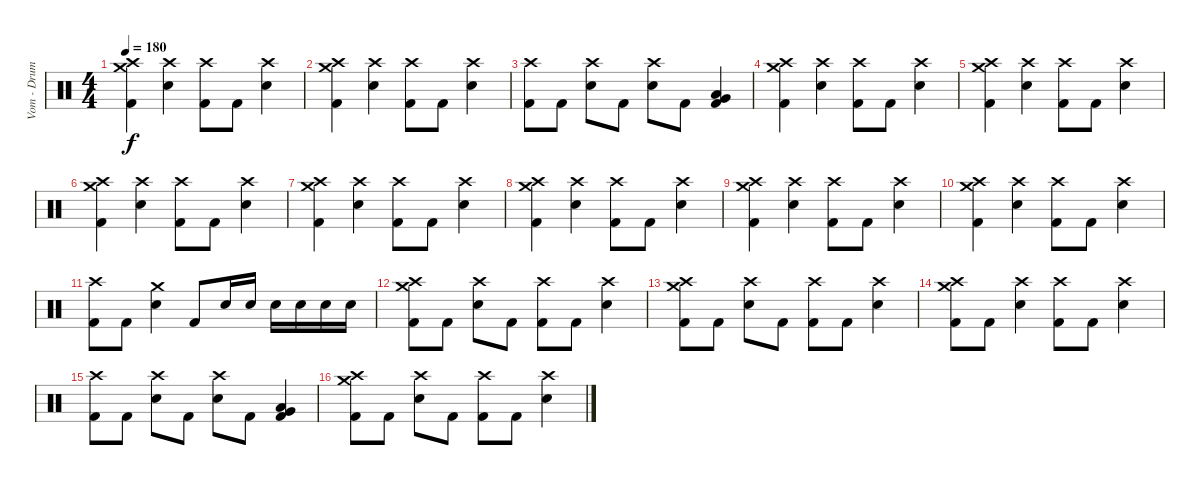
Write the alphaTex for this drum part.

\track ("Vom - Drums" "Vom - Drum") {instrument percussion}
\staff {score}
\articulation defaults
\ts (4 4)
\tempo 180
\clef neutral
\ks c
("Crash high (hit)" "Crash medium (hit)" "Kick (hit) 2").4{dy f} ("Crash high (hit)" "Electric Snare (hit)").4 ("Crash high (hit)" "Kick (hit) 2").8 "Kick (hit) 2".8 ("Crash high (hit)" "Electric Snare (hit)").4 |
("Crash high (hit)" "Crash medium (hit)" "Kick (hit) 2").4 ("Crash high (hit)" "Electric Snare (hit)").4 ("Crash high (hit)" "Kick (hit) 2").8 "Kick (hit) 2".8 ("Crash high (hit)" "Electric Snare (hit)").4 |
("Crash high (hit)" "Kick (hit) 2").8 "Kick (hit) 2".8 ("Crash high (hit)" "Electric Snare (hit)").8 "Kick (hit) 2".8 ("Crash high (hit)" "Electric Snare (hit)").8 "Kick (hit) 2".8 ("Low Tom (hit)" "Very Low Tom (hit)" "Kick (hit) 2").4 |
("Crash high (hit)" "Crash medium (hit)" "Kick (hit) 2").4 ("Crash high (hit)" "Electric Snare (hit)").4 ("Crash high (hit)" "Kick (hit) 2").8 "Kick (hit) 2".8 ("Crash high (hit)" "Electric Snare (hit)").4 |
("Crash high (hit)" "Crash medium (hit)" "Kick (hit) 2").4 ("Crash high (hit)" "Electric Snare (hit)").4 ("Crash high (hit)" "Kick (hit) 2").8 "Kick (hit) 2".8 ("Crash high (hit)" "Electric Snare (hit)").4 |
("Crash high (hit)" "Crash medium (hit)" "Kick (hit) 2").4 ("Crash high (hit)" "Electric Snare (hit)").4 ("Crash high (hit)" "Kick (hit) 2").8 "Kick (hit) 2".8 ("Crash high (hit)" "Electric Snare (hit)").4 |
("Crash high (hit)" "Crash medium (hit)" "Kick (hit) 2").4 ("Crash high (hit)" "Electric Snare (hit)").4 ("Crash high (hit)" "Kick (hit) 2").8 "Kick (hit) 2".8 ("Crash high (hit)" "Electric Snare (hit)").4 |
("Crash high (hit)" "Crash medium (hit)" "Kick (hit) 2").4 ("Crash high (hit)" "Electric Snare (hit)").4 ("Crash high (hit)" "Kick (hit) 2").8 "Kick (hit) 2".8 ("Crash high (hit)" "Electric Snare (hit)").4 |
("Crash high (hit)" "Crash medium (hit)" "Kick (hit) 2").4 ("Crash high (hit)" "Electric Snare (hit)").4 ("Crash high (hit)" "Kick (hit) 2").8 "Kick (hit) 2".8 ("Crash high (hit)" "Electric Snare (hit)").4 |
("Crash high (hit)" "Crash medium (hit)" "Kick (hit) 2").4 ("Crash high (hit)" "Electric Snare (hit)").4 ("Crash high (hit)" "Kick (hit) 2").8 "Kick (hit) 2".8 ("Crash high (hit)" "Electric Snare (hit)").4 |
("Crash high (hit)" "Kick (hit) 2").8 "Kick (hit) 2".8 ("Crash medium (hit)" "Electric Snare (hit)").4 "Kick (hit) 2".8 "Electric Snare (hit)".16 "Electric Snare (hit)".16 "Electric Snare (hit)".16 "Electric Snare (hit)".16 "Electric Snare (hit)".16 "Electric Snare (hit)".16 |
("Crash high (hit)" "Crash medium (hit)" "Kick (hit) 2").8 "Kick (hit) 2".8 ("Crash high (hit)" "Electric Snare (hit)").8 "Kick (hit) 2".8 ("Crash high (hit)" "Kick (hit) 2").8 "Kick (hit) 2".8 ("Crash high (hit)" "Electric Snare (hit)").4 |
("Crash high (hit)" "Crash medium (hit)" "Kick (hit) 2").8 "Kick (hit) 2".8 ("Crash high (hit)" "Electric Snare (hit)").8 "Kick (hit) 2".8 ("Crash high (hit)" "Kick (hit) 2").8 "Kick (hit) 2".8 ("Crash high (hit)" "Electric Snare (hit)").4 |
("Crash high (hit)" "Crash medium (hit)" "Kick (hit) 2").8 "Kick (hit) 2".8 ("Crash high (hit)" "Electric Snare (hit)").4 ("Crash high (hit)" "Kick (hit) 2").8 "Kick (hit) 2".8 ("Crash high (hit)" "Electric Snare (hit)").4 |
("Crash high (hit)" "Kick (hit) 2").8 "Kick (hit) 2".8 ("Crash high (hit)" "Electric Snare (hit)").8 "Kick (hit) 2".8 ("Crash high (hit)" "Electric Snare (hit)").8 "Kick (hit) 2".8 ("Low Tom (hit)" "Very Low Tom (hit)" "Kick (hit) 2").4 |
("Crash high (hit)" "Crash medium (hit)" "Kick (hit) 2").8 "Kick (hit) 2".8 ("Crash high (hit)" "Electric Snare (hit)").8 "Kick (hit) 2".8 ("Crash high (hit)" "Kick (hit) 2").8 "Kick (hit) 2".8 ("Crash high (hit)" "Electric Snare (hit)").4
